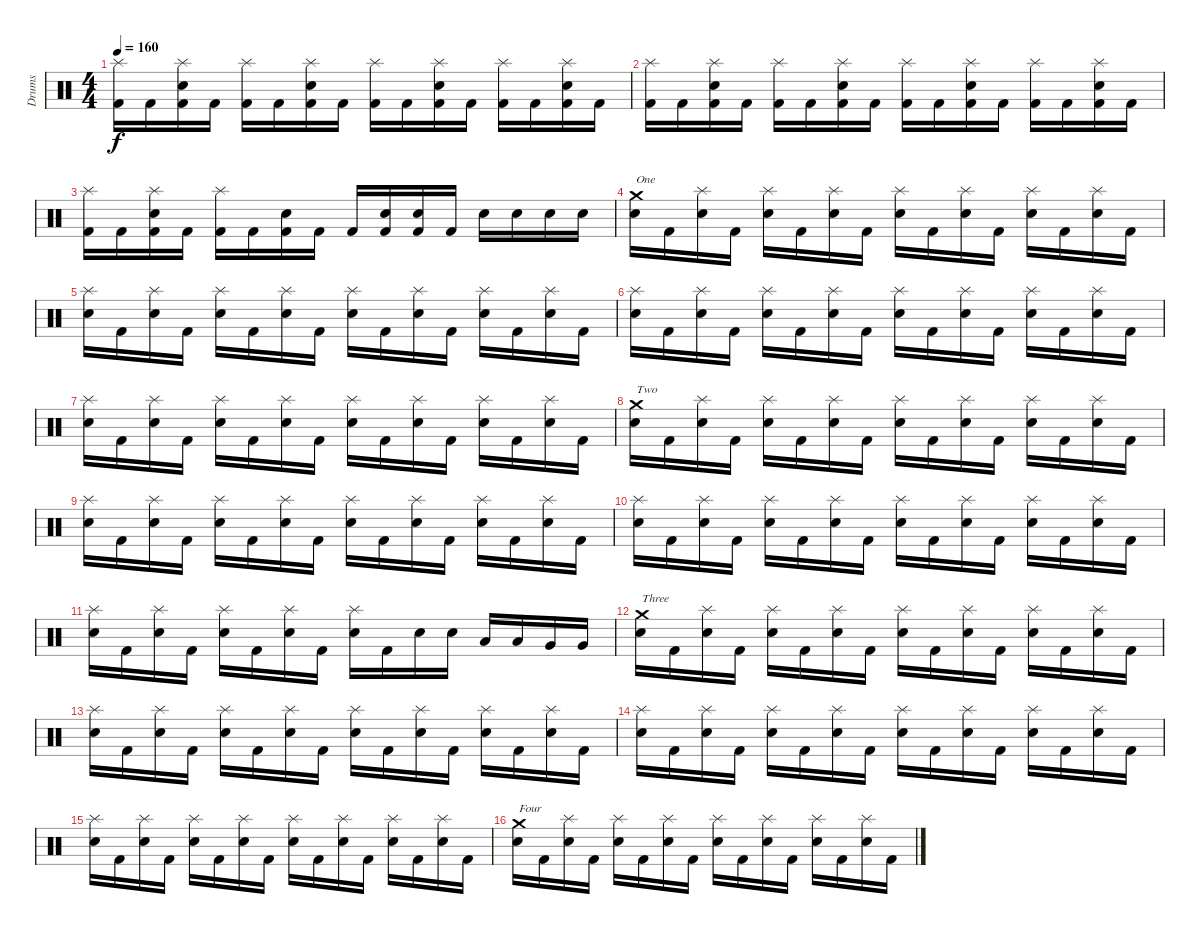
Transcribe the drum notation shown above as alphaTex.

\track ("Drums" "Drums") {instrument percussion}
\staff {score}
\articulation defaults
\ts (4 4)
\tempo 160
\clef neutral
\ks c
("Splash (hit)" "Kick (hit) 2").16{dy f} "Kick (hit) 2".16 ("Splash (hit)" "Snare (hit) 2" "Kick (hit) 2").16 "Kick (hit) 2".16 ("Splash (hit)" "Kick (hit) 2").16 "Kick (hit) 2".16 ("Splash (hit)" "Snare (hit) 2" "Kick (hit) 2").16 "Kick (hit) 2".16 ("Splash (hit)" "Kick (hit) 2").16 "Kick (hit) 2".16 ("Splash (hit)" "Snare (hit) 2" "Kick (hit) 2").16 "Kick (hit) 2".16 ("Splash (hit)" "Kick (hit) 2").16 "Kick (hit) 2".16 ("Splash (hit)" "Snare (hit) 2" "Kick (hit) 2").16 "Kick (hit) 2".16 |
("Splash (hit)" "Kick (hit) 2").16 "Kick (hit) 2".16 ("Splash (hit)" "Snare (hit) 2" "Kick (hit) 2").16 "Kick (hit) 2".16 ("Splash (hit)" "Kick (hit) 2").16 "Kick (hit) 2".16 ("Splash (hit)" "Snare (hit) 2" "Kick (hit) 2").16 "Kick (hit) 2".16 ("Splash (hit)" "Kick (hit) 2").16 "Kick (hit) 2".16 ("Splash (hit)" "Snare (hit) 2" "Kick (hit) 2").16 "Kick (hit) 2".16 ("Splash (hit)" "Kick (hit) 2").16 "Kick (hit) 2".16 ("Splash (hit)" "Snare (hit) 2" "Kick (hit) 2").16 "Kick (hit) 2".16 |
("Splash (hit)" "Kick (hit) 2").16 "Kick (hit) 2".16 ("Splash (hit)" "Snare (hit) 2" "Kick (hit) 2").16 "Kick (hit) 2".16 ("Splash (hit)" "Kick (hit) 2").16 "Kick (hit) 2".16 ("Snare (hit) 2" "Kick (hit) 2").16 "Kick (hit) 2".16 "Kick (hit) 2".16 ("Snare (hit) 2" "Kick (hit) 2").16 ("Snare (hit) 2" "Kick (hit) 2").16 "Kick (hit) 2".16 "Snare (hit) 2".16 "Snare (hit) 2".16 "Snare (hit) 2".16 "Snare (hit) 2".16 |
("Crash medium (hit)" "Snare (hit) 2").16{txt "One"} "Kick (hit) 2".16 ("Splash (hit)" "Snare (hit) 2").16 "Kick (hit) 2".16 ("Splash (hit)" "Snare (hit) 2").16 "Kick (hit) 2".16 ("Splash (hit)" "Snare (hit) 2").16 "Kick (hit) 2".16 ("Splash (hit)" "Snare (hit) 2").16 "Kick (hit) 2".16 ("Splash (hit)" "Snare (hit) 2").16 "Kick (hit) 2".16 ("Splash (hit)" "Snare (hit) 2").16 "Kick (hit) 2".16 ("Splash (hit)" "Snare (hit) 2").16 "Kick (hit) 2".16 |
("Splash (hit)" "Snare (hit) 2").16 "Kick (hit) 2".16 ("Splash (hit)" "Snare (hit) 2").16 "Kick (hit) 2".16 ("Splash (hit)" "Snare (hit) 2").16 "Kick (hit) 2".16 ("Splash (hit)" "Snare (hit) 2").16 "Kick (hit) 2".16 ("Splash (hit)" "Snare (hit) 2").16 "Kick (hit) 2".16 ("Splash (hit)" "Snare (hit) 2").16 "Kick (hit) 2".16 ("Splash (hit)" "Snare (hit) 2").16 "Kick (hit) 2".16 ("Splash (hit)" "Snare (hit) 2").16 "Kick (hit) 2".16 |
("Splash (hit)" "Snare (hit) 2").16 "Kick (hit) 2".16 ("Splash (hit)" "Snare (hit) 2").16 "Kick (hit) 2".16 ("Splash (hit)" "Snare (hit) 2").16 "Kick (hit) 2".16 ("Splash (hit)" "Snare (hit) 2").16 "Kick (hit) 2".16 ("Splash (hit)" "Snare (hit) 2").16 "Kick (hit) 2".16 ("Splash (hit)" "Snare (hit) 2").16 "Kick (hit) 2".16 ("Splash (hit)" "Snare (hit) 2").16 "Kick (hit) 2".16 ("Splash (hit)" "Snare (hit) 2").16 "Kick (hit) 2".16 |
("Splash (hit)" "Snare (hit) 2").16 "Kick (hit) 2".16 ("Splash (hit)" "Snare (hit) 2").16 "Kick (hit) 2".16 ("Splash (hit)" "Snare (hit) 2").16 "Kick (hit) 2".16 ("Splash (hit)" "Snare (hit) 2").16 "Kick (hit) 2".16 ("Splash (hit)" "Snare (hit) 2").16 "Kick (hit) 2".16 ("Splash (hit)" "Snare (hit) 2").16 "Kick (hit) 2".16 ("Splash (hit)" "Snare (hit) 2").16 "Kick (hit) 2".16 ("Splash (hit)" "Snare (hit) 2").16 "Kick (hit) 2".16 |
("Crash medium (hit)" "Snare (hit) 2").16{txt "Two"} "Kick (hit) 2".16 ("Splash (hit)" "Snare (hit) 2").16 "Kick (hit) 2".16 ("Splash (hit)" "Snare (hit) 2").16 "Kick (hit) 2".16 ("Splash (hit)" "Snare (hit) 2").16 "Kick (hit) 2".16 ("Splash (hit)" "Snare (hit) 2").16 "Kick (hit) 2".16 ("Splash (hit)" "Snare (hit) 2").16 "Kick (hit) 2".16 ("Splash (hit)" "Snare (hit) 2").16 "Kick (hit) 2".16 ("Splash (hit)" "Snare (hit) 2").16 "Kick (hit) 2".16 |
("Splash (hit)" "Snare (hit) 2").16 "Kick (hit) 2".16 ("Splash (hit)" "Snare (hit) 2").16 "Kick (hit) 2".16 ("Splash (hit)" "Snare (hit) 2").16 "Kick (hit) 2".16 ("Splash (hit)" "Snare (hit) 2").16 "Kick (hit) 2".16 ("Splash (hit)" "Snare (hit) 2").16 "Kick (hit) 2".16 ("Splash (hit)" "Snare (hit) 2").16 "Kick (hit) 2".16 ("Splash (hit)" "Snare (hit) 2").16 "Kick (hit) 2".16 ("Splash (hit)" "Snare (hit) 2").16 "Kick (hit) 2".16 |
("Splash (hit)" "Snare (hit) 2").16 "Kick (hit) 2".16 ("Splash (hit)" "Snare (hit) 2").16 "Kick (hit) 2".16 ("Splash (hit)" "Snare (hit) 2").16 "Kick (hit) 2".16 ("Splash (hit)" "Snare (hit) 2").16 "Kick (hit) 2".16 ("Splash (hit)" "Snare (hit) 2").16 "Kick (hit) 2".16 ("Splash (hit)" "Snare (hit) 2").16 "Kick (hit) 2".16 ("Splash (hit)" "Snare (hit) 2").16 "Kick (hit) 2".16 ("Splash (hit)" "Snare (hit) 2").16 "Kick (hit) 2".16 |
("Splash (hit)" "Snare (hit) 2").16 "Kick (hit) 2".16 ("Splash (hit)" "Snare (hit) 2").16 "Kick (hit) 2".16 ("Splash (hit)" "Snare (hit) 2").16 "Kick (hit) 2".16 ("Splash (hit)" "Snare (hit) 2").16 "Kick (hit) 2".16 ("Splash (hit)" "Snare (hit) 2").16 "Kick (hit) 2".16 "Snare (hit) 2".16 "Snare (hit) 2".16 "Low Tom (hit)".16 "Low Tom (hit)".16 "Very Low Tom (hit)".16 "Very Low Tom (hit)".16 |
("Crash medium (hit)" "Snare (hit) 2").16{txt "Three"} "Kick (hit) 2".16 ("Splash (hit)" "Snare (hit) 2").16 "Kick (hit) 2".16 ("Splash (hit)" "Snare (hit) 2").16 "Kick (hit) 2".16 ("Splash (hit)" "Snare (hit) 2").16 "Kick (hit) 2".16 ("Splash (hit)" "Snare (hit) 2").16 "Kick (hit) 2".16 ("Splash (hit)" "Snare (hit) 2").16 "Kick (hit) 2".16 ("Splash (hit)" "Snare (hit) 2").16 "Kick (hit) 2".16 ("Splash (hit)" "Snare (hit) 2").16 "Kick (hit) 2".16 |
("Splash (hit)" "Snare (hit) 2").16 "Kick (hit) 2".16 ("Splash (hit)" "Snare (hit) 2").16 "Kick (hit) 2".16 ("Splash (hit)" "Snare (hit) 2").16 "Kick (hit) 2".16 ("Splash (hit)" "Snare (hit) 2").16 "Kick (hit) 2".16 ("Splash (hit)" "Snare (hit) 2").16 "Kick (hit) 2".16 ("Splash (hit)" "Snare (hit) 2").16 "Kick (hit) 2".16 ("Splash (hit)" "Snare (hit) 2").16 "Kick (hit) 2".16 ("Splash (hit)" "Snare (hit) 2").16 "Kick (hit) 2".16 |
("Splash (hit)" "Snare (hit) 2").16 "Kick (hit) 2".16 ("Splash (hit)" "Snare (hit) 2").16 "Kick (hit) 2".16 ("Splash (hit)" "Snare (hit) 2").16 "Kick (hit) 2".16 ("Splash (hit)" "Snare (hit) 2").16 "Kick (hit) 2".16 ("Splash (hit)" "Snare (hit) 2").16 "Kick (hit) 2".16 ("Splash (hit)" "Snare (hit) 2").16 "Kick (hit) 2".16 ("Splash (hit)" "Snare (hit) 2").16 "Kick (hit) 2".16 ("Splash (hit)" "Snare (hit) 2").16 "Kick (hit) 2".16 |
("Splash (hit)" "Snare (hit) 2").16 "Kick (hit) 2".16 ("Splash (hit)" "Snare (hit) 2").16 "Kick (hit) 2".16 ("Splash (hit)" "Snare (hit) 2").16 "Kick (hit) 2".16 ("Splash (hit)" "Snare (hit) 2").16 "Kick (hit) 2".16 ("Splash (hit)" "Snare (hit) 2").16 "Kick (hit) 2".16 ("Splash (hit)" "Snare (hit) 2").16 "Kick (hit) 2".16 ("Splash (hit)" "Snare (hit) 2").16 "Kick (hit) 2".16 ("Splash (hit)" "Snare (hit) 2").16 "Kick (hit) 2".16 |
("Crash medium (hit)" "Snare (hit) 2").16{txt "Four"} "Kick (hit) 2".16 ("Splash (hit)" "Snare (hit) 2").16 "Kick (hit) 2".16 ("Splash (hit)" "Snare (hit) 2").16 "Kick (hit) 2".16 ("Splash (hit)" "Snare (hit) 2").16 "Kick (hit) 2".16 ("Splash (hit)" "Snare (hit) 2").16 "Kick (hit) 2".16 ("Splash (hit)" "Snare (hit) 2").16 "Kick (hit) 2".16 ("Splash (hit)" "Snare (hit) 2").16 "Kick (hit) 2".16 ("Splash (hit)" "Snare (hit) 2").16 "Kick (hit) 2".16
